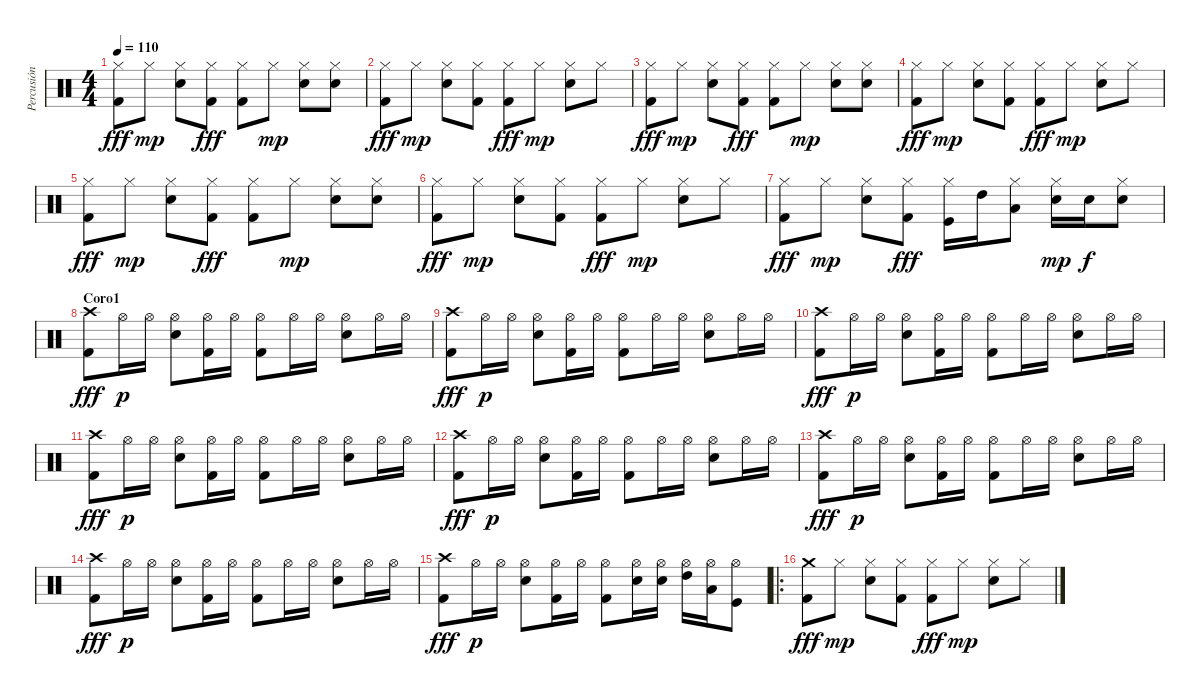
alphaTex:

\track ("Percusión" "Percusión") {instrument percussion}
\staff {score}
\articulation defaults
\ts (4 4)
\tempo 110
\clef neutral
\ks c
("Hi-Hat (closed)" "Kick (hit) 2").8{dy fff} "Hi-Hat (closed)".8{dy mp} ("Hi-Hat (closed)" "Snare (hit) 2").8 ("Hi-Hat (closed)" "Kick (hit) 2").8{dy fff} ("Hi-Hat (closed)" "Kick (hit) 2").8 "Hi-Hat (closed)".8{dy mp} ("Hi-Hat (closed)" "Snare (hit) 2").8 ("Hi-Hat (closed)" "Snare (hit) 2").8 |
("Hi-Hat (closed)" "Kick (hit) 2").8{dy fff} "Hi-Hat (closed)".8{dy mp} ("Hi-Hat (closed)" "Snare (hit) 2").8 ("Hi-Hat (closed)" "Kick (hit) 2").8 ("Hi-Hat (closed)" "Kick (hit) 2").8{dy fff} "Hi-Hat (closed)".8{dy mp} ("Hi-Hat (closed)" "Snare (hit) 2").8 "Hi-Hat (closed)".8 |
("Hi-Hat (closed)" "Kick (hit) 2").8{dy fff} "Hi-Hat (closed)".8{dy mp} ("Hi-Hat (closed)" "Snare (hit) 2").8 ("Hi-Hat (closed)" "Kick (hit) 2").8{dy fff} ("Hi-Hat (closed)" "Kick (hit) 2").8 "Hi-Hat (closed)".8{dy mp} ("Hi-Hat (closed)" "Snare (hit) 2").8 ("Hi-Hat (closed)" "Snare (hit) 2").8 |
("Hi-Hat (closed)" "Kick (hit) 2").8{dy fff} "Hi-Hat (closed)".8{dy mp} ("Hi-Hat (closed)" "Snare (hit) 2").8 ("Hi-Hat (closed)" "Kick (hit) 2").8 ("Hi-Hat (closed)" "Kick (hit) 2").8{dy fff} "Hi-Hat (closed)".8{dy mp} ("Hi-Hat (closed)" "Snare (hit) 2").8 "Hi-Hat (closed)".8 |
("Hi-Hat (closed)" "Kick (hit) 2").8{dy fff} "Hi-Hat (closed)".8{dy mp} ("Hi-Hat (closed)" "Snare (hit) 2").8 ("Hi-Hat (closed)" "Kick (hit) 2").8{dy fff} ("Hi-Hat (closed)" "Kick (hit) 2").8 "Hi-Hat (closed)".8{dy mp} ("Hi-Hat (closed)" "Snare (hit) 2").8 ("Hi-Hat (closed)" "Snare (hit) 2").8 |
("Hi-Hat (closed)" "Kick (hit) 2").8{dy fff} "Hi-Hat (closed)".8{dy mp} ("Hi-Hat (closed)" "Snare (hit) 2").8 ("Hi-Hat (closed)" "Kick (hit) 2").8 ("Hi-Hat (closed)" "Kick (hit) 2").8{dy fff} "Hi-Hat (closed)".8{dy mp} ("Hi-Hat (closed)" "Snare (hit) 2").8 "Hi-Hat (closed)".8 |
("Hi-Hat (closed)" "Kick (hit) 2").8{dy fff} "Hi-Hat (closed)".8{dy mp} ("Hi-Hat (closed)" "Snare (hit) 2").8 ("Hi-Hat (closed)" "Kick (hit) 2").8{dy fff} ("Hi-Hat (closed)" "Kick (hit)").16 "High Tom (hit)".16 ("Hi-Hat (closed)" "Low Tom (hit)").8 ("Hi-Hat (closed)" "Snare (hit) 2").16{dy mp} "Snare (hit) 2".16{dy f} ("Hi-Hat (closed)" "Snare (hit) 2").8 |
\section ("" "Coro1")
("Crash high (hit)" "Kick (hit) 2").8{dy fff} "Hi-Hat (open)".16{dy p} "Hi-Hat (open)".16 ("Hi-Hat (open)" "Snare (hit) 2").8 ("Hi-Hat (open)" "Kick (hit) 2").16 "Hi-Hat (open)".16 ("Hi-Hat (open)" "Kick (hit) 2").8 "Hi-Hat (open)".16 "Hi-Hat (open)".16 ("Hi-Hat (open)" "Snare (hit) 2").8 "Hi-Hat (open)".16 "Hi-Hat (open)".16 |
("Crash high (hit)" "Kick (hit) 2").8{dy fff} "Hi-Hat (open)".16{dy p} "Hi-Hat (open)".16 ("Hi-Hat (open)" "Snare (hit) 2").8 ("Hi-Hat (open)" "Kick (hit) 2").16 "Hi-Hat (open)".16 ("Hi-Hat (open)" "Kick (hit) 2").8 "Hi-Hat (open)".16 "Hi-Hat (open)".16 ("Hi-Hat (open)" "Snare (hit) 2").8 "Hi-Hat (open)".16 "Hi-Hat (open)".16 |
("Crash high (hit)" "Kick (hit) 2").8{dy fff} "Hi-Hat (open)".16{dy p} "Hi-Hat (open)".16 ("Hi-Hat (open)" "Snare (hit) 2").8 ("Hi-Hat (open)" "Kick (hit) 2").16 "Hi-Hat (open)".16 ("Hi-Hat (open)" "Kick (hit) 2").8 "Hi-Hat (open)".16 "Hi-Hat (open)".16 ("Hi-Hat (open)" "Snare (hit) 2").8 "Hi-Hat (open)".16 "Hi-Hat (open)".16 |
("Crash high (hit)" "Kick (hit) 2").8{dy fff} "Hi-Hat (open)".16{dy p} "Hi-Hat (open)".16 ("Hi-Hat (open)" "Snare (hit) 2").8 ("Hi-Hat (open)" "Kick (hit) 2").16 "Hi-Hat (open)".16 ("Hi-Hat (open)" "Kick (hit) 2").8 "Hi-Hat (open)".16 "Hi-Hat (open)".16 ("Hi-Hat (open)" "Snare (hit) 2").8 "Hi-Hat (open)".16 "Hi-Hat (open)".16 |
("Crash high (hit)" "Kick (hit) 2").8{dy fff} "Hi-Hat (open)".16{dy p} "Hi-Hat (open)".16 ("Hi-Hat (open)" "Snare (hit) 2").8 ("Hi-Hat (open)" "Kick (hit) 2").16 "Hi-Hat (open)".16 ("Hi-Hat (open)" "Kick (hit) 2").8 "Hi-Hat (open)".16 "Hi-Hat (open)".16 ("Hi-Hat (open)" "Snare (hit) 2").8 "Hi-Hat (open)".16 "Hi-Hat (open)".16 |
("Crash high (hit)" "Kick (hit) 2").8{dy fff} "Hi-Hat (open)".16{dy p} "Hi-Hat (open)".16 ("Hi-Hat (open)" "Snare (hit) 2").8 ("Hi-Hat (open)" "Kick (hit) 2").16 "Hi-Hat (open)".16 ("Hi-Hat (open)" "Kick (hit) 2").8 "Hi-Hat (open)".16 "Hi-Hat (open)".16 ("Hi-Hat (open)" "Snare (hit) 2").8 "Hi-Hat (open)".16 "Hi-Hat (open)".16 |
("Crash high (hit)" "Kick (hit) 2").8{dy fff} "Hi-Hat (open)".16{dy p} "Hi-Hat (open)".16 ("Hi-Hat (open)" "Snare (hit) 2").8 ("Hi-Hat (open)" "Kick (hit) 2").16 "Hi-Hat (open)".16 ("Hi-Hat (open)" "Kick (hit) 2").8 "Hi-Hat (open)".16 "Hi-Hat (open)".16 ("Hi-Hat (open)" "Snare (hit) 2").8 "Hi-Hat (open)".16 "Hi-Hat (open)".16 |
("Crash high (hit)" "Kick (hit) 2").8{dy fff} "Hi-Hat (open)".16{dy p} "Hi-Hat (open)".16 ("Hi-Hat (open)" "Snare (hit) 2").8 ("Hi-Hat (open)" "Kick (hit) 2").16 "Hi-Hat (open)".16 ("Hi-Hat (open)" "Kick (hit) 2").8 ("Hi-Hat (open)" "Snare (hit) 2").16 ("Hi-Hat (open)" "Snare (hit) 2").16 ("Hi-Hat (open)" "High Tom (hit)").16 ("Hi-Hat (open)" "Low Tom (hit)").16 ("Hi-Hat (open)" "Kick (hit)").8 |
\ro
("Crash medium (hit)" "Kick (hit) 2").8{dy fff} "Hi-Hat (closed)".8{dy mp} ("Hi-Hat (closed)" "Snare (hit) 2").8 ("Hi-Hat (closed)" "Kick (hit) 2").8 ("Hi-Hat (closed)" "Kick (hit) 2").8{dy fff} "Hi-Hat (closed)".8{dy mp} ("Hi-Hat (closed)" "Snare (hit) 2").8 "Hi-Hat (closed)".8
